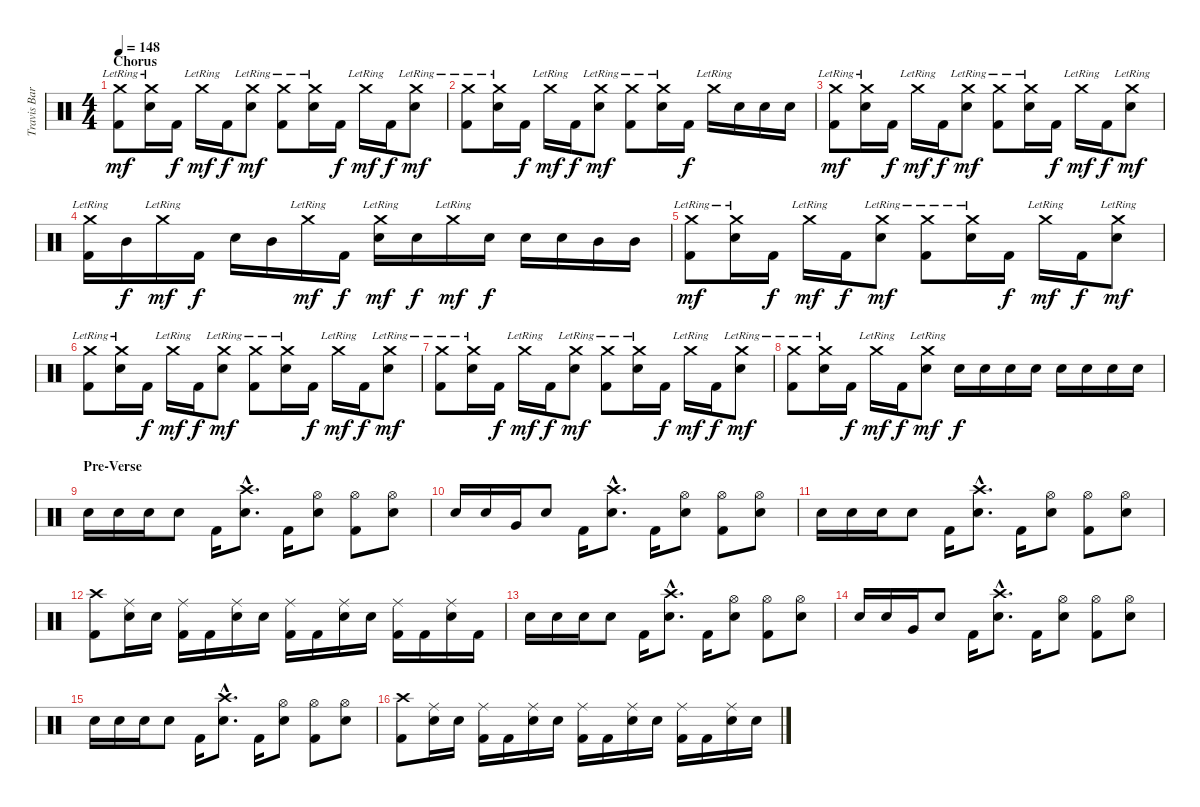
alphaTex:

\track ("Travis Barker - Drums" "Travis Bar") {instrument percussion}
\staff {score}
\articulation defaults
\ts (4 4)
\section ("" "Chorus")
\tempo 148
\clef neutral
\ks c
("Crash medium (hit)"{lr} "Kick (hit) 2").8{dy mf} ("Crash medium (hit)"{lr} "Electric Snare (hit)").16 "Kick (hit) 2".16{dy f} "Crash medium (hit)"{lr}.16{dy mf} "Kick (hit) 2".16{dy f} ("Crash medium (hit)"{lr} "Electric Snare (hit)").8{dy mf} ("Crash medium (hit)"{lr} "Kick (hit) 2").8 ("Crash medium (hit)"{lr} "Electric Snare (hit)").16 "Kick (hit) 2".16{dy f} "Crash medium (hit)"{lr}.16{dy mf} "Kick (hit) 2".16{dy f} ("Crash medium (hit)"{lr} "Electric Snare (hit)").8{dy mf} |
("Crash medium (hit)"{lr} "Kick (hit) 2").8 ("Crash medium (hit)"{lr} "Electric Snare (hit)").16 "Kick (hit) 2".16{dy f} "Crash medium (hit)"{lr}.16{dy mf} "Kick (hit) 2".16{dy f} ("Crash medium (hit)"{lr} "Electric Snare (hit)").8{dy mf} ("Crash medium (hit)"{lr} "Kick (hit) 2").8 ("Crash medium (hit)"{lr} "Electric Snare (hit)").16 "Kick (hit) 2".16{dy f} "Crash medium (hit)"{lr}.16 "Electric Snare (hit)".16 "Electric Snare (hit)".16 "Electric Snare (hit)".16 |
("Crash medium (hit)"{lr} "Kick (hit) 2").8{dy mf} ("Crash medium (hit)"{lr} "Electric Snare (hit)").16 "Kick (hit) 2".16{dy f} "Crash medium (hit)"{lr}.16{dy mf} "Kick (hit) 2".16{dy f} ("Crash medium (hit)"{lr} "Electric Snare (hit)").8{dy mf} ("Crash medium (hit)"{lr} "Kick (hit) 2").8 ("Crash medium (hit)"{lr} "Electric Snare (hit)").16 "Kick (hit) 2".16{dy f} "Crash medium (hit)"{lr}.16{dy mf} "Kick (hit) 2".16{dy f} ("Crash medium (hit)"{lr} "Electric Snare (hit)").8{dy mf} |
("Crash medium (hit)"{lr} "Kick (hit) 2").16 "Mid Tom (hit)".16{dy f} "Crash medium (hit)"{lr}.16{dy mf} "Kick (hit) 2".16{dy f} "Electric Snare (hit)".16 "Mid Tom (hit)".16 "Crash medium (hit)"{lr}.16{dy mf} "Kick (hit) 2".16{dy f} ("Crash medium (hit)"{lr} "Electric Snare (hit)").16{dy mf} "Electric Snare (hit)".16{dy f} "Crash medium (hit)"{lr}.16{dy mf} "Electric Snare (hit)".16{dy f} "Electric Snare (hit)".16 "Electric Snare (hit)".16 "Mid Tom (hit)".16 "Mid Tom (hit)".16 |
("Crash medium (hit)"{lr} "Kick (hit) 2").8{dy mf} ("Crash medium (hit)"{lr} "Electric Snare (hit)").16 "Kick (hit) 2".16{dy f} "Crash medium (hit)"{lr}.16{dy mf} "Kick (hit) 2".16{dy f} ("Crash medium (hit)"{lr} "Electric Snare (hit)").8{dy mf} ("Crash medium (hit)"{lr} "Kick (hit) 2").8 ("Crash medium (hit)"{lr} "Electric Snare (hit)").16 "Kick (hit) 2".16{dy f} "Crash medium (hit)"{lr}.16{dy mf} "Kick (hit) 2".16{dy f} ("Crash medium (hit)"{lr} "Electric Snare (hit)").8{dy mf} |
("Crash medium (hit)"{lr} "Kick (hit) 2").8 ("Crash medium (hit)"{lr} "Electric Snare (hit)").16 "Kick (hit) 2".16{dy f} "Crash medium (hit)"{lr}.16{dy mf} "Kick (hit) 2".16{dy f} ("Crash medium (hit)"{lr} "Electric Snare (hit)").8{dy mf} ("Crash medium (hit)"{lr} "Kick (hit) 2").8 ("Crash medium (hit)"{lr} "Electric Snare (hit)").16 "Kick (hit) 2".16{dy f} "Crash medium (hit)"{lr}.16{dy mf} "Kick (hit) 2".16{dy f} ("Crash medium (hit)"{lr} "Electric Snare (hit)").8{dy mf} |
("Crash medium (hit)"{lr} "Kick (hit) 2").8 ("Crash medium (hit)"{lr} "Electric Snare (hit)").16 "Kick (hit) 2".16{dy f} "Crash medium (hit)"{lr}.16{dy mf} "Kick (hit) 2".16{dy f} ("Crash medium (hit)"{lr} "Electric Snare (hit)").8{dy mf} ("Crash medium (hit)"{lr} "Kick (hit) 2").8 ("Crash medium (hit)"{lr} "Electric Snare (hit)").16 "Kick (hit) 2".16{dy f} "Crash medium (hit)"{lr}.16{dy mf} "Kick (hit) 2".16{dy f} ("Crash medium (hit)"{lr} "Electric Snare (hit)").8{dy mf} |
("Crash medium (hit)"{lr} "Kick (hit) 2").8 ("Crash medium (hit)"{lr} "Electric Snare (hit)").16 "Kick (hit) 2".16{dy f} "Crash medium (hit)"{lr}.16{dy mf} "Kick (hit) 2".16{dy f} ("Crash medium (hit)"{lr} "Electric Snare (hit)").8{dy mf} "Electric Snare (hit)".16{dy f} "Electric Snare (hit)".16 "Electric Snare (hit)".16 "Electric Snare (hit)".16 "Electric Snare (hit)".16 "Electric Snare (hit)".16 "Electric Snare (hit)".16 "Electric Snare (hit)".16 |
\section ("" "Pre-Verse")
"Electric Snare (hit)".16 "Electric Snare (hit)".16 "Electric Snare (hit)".16 "Electric Snare (hit)".8 "Kick (hit) 2".16 ("Crash high (hit)"{hac} "Electric Snare (hit)"{hac}).8{d} "Kick (hit) 2".16 ("Hi-Hat (open)" "Electric Snare (hit)").8 ("Hi-Hat (open)" "Kick (hit) 2").8 ("Hi-Hat (open)" "Electric Snare (hit)").8 |
"Electric Snare (hit)".16 "Electric Snare (hit)".16 "Very Low Tom (hit)".16 "Electric Snare (hit)".8 "Kick (hit) 2".16 ("Crash high (hit)"{hac} "Electric Snare (hit)"{hac}).8{d} "Kick (hit) 2".16 ("Hi-Hat (open)" "Electric Snare (hit)").8 ("Hi-Hat (open)" "Kick (hit) 2").8 ("Hi-Hat (open)" "Electric Snare (hit)").8 |
"Electric Snare (hit)".16 "Electric Snare (hit)".16 "Electric Snare (hit)".16 "Electric Snare (hit)".8 "Kick (hit) 2".16 ("Crash high (hit)"{hac} "Electric Snare (hit)"{hac}).8{d} "Kick (hit) 2".16 ("Hi-Hat (open)" "Electric Snare (hit)").8 ("Hi-Hat (open)" "Kick (hit) 2").8 ("Hi-Hat (open)" "Electric Snare (hit)").8 |
("Crash high (hit)" "Kick (hit) 2").8 ("Ride (middle)" "Electric Snare (hit)").16 "Electric Snare (hit)".16 ("Ride (middle)" "Kick (hit) 2").16 "Kick (hit) 2".16 ("Ride (middle)" "Electric Snare (hit)").16 "Electric Snare (hit)".16 ("Ride (middle)" "Kick (hit) 2").16 "Kick (hit) 2".16 ("Ride (middle)" "Electric Snare (hit)").16 "Electric Snare (hit)".16 ("Ride (middle)" "Kick (hit) 2").16 "Kick (hit) 2".16 ("Ride (middle)" "Electric Snare (hit)").16 "Kick (hit) 2".16 |
"Electric Snare (hit)".16 "Electric Snare (hit)".16 "Electric Snare (hit)".16 "Electric Snare (hit)".8 "Kick (hit) 2".16 ("Crash high (hit)"{hac} "Electric Snare (hit)"{hac}).8{d} "Kick (hit) 2".16 ("Hi-Hat (open)" "Electric Snare (hit)").8 ("Hi-Hat (open)" "Kick (hit) 2").8 ("Hi-Hat (open)" "Electric Snare (hit)").8 |
"Electric Snare (hit)".16 "Electric Snare (hit)".16 "Very Low Tom (hit)".16 "Electric Snare (hit)".8 "Kick (hit) 2".16 ("Crash high (hit)"{hac} "Electric Snare (hit)"{hac}).8{d} "Kick (hit) 2".16 ("Hi-Hat (open)" "Electric Snare (hit)").8 ("Hi-Hat (open)" "Kick (hit) 2").8 ("Hi-Hat (open)" "Electric Snare (hit)").8 |
"Electric Snare (hit)".16 "Electric Snare (hit)".16 "Electric Snare (hit)".16 "Electric Snare (hit)".8 "Kick (hit) 2".16 ("Crash high (hit)"{hac} "Electric Snare (hit)"{hac}).8{d} "Kick (hit) 2".16 ("Hi-Hat (open)" "Electric Snare (hit)").8 ("Hi-Hat (open)" "Kick (hit) 2").8 ("Hi-Hat (open)" "Electric Snare (hit)").8 |
("Crash high (hit)" "Kick (hit) 2").8 ("Ride (middle)" "Electric Snare (hit)").16 "Electric Snare (hit)".16 ("Ride (middle)" "Kick (hit) 2").16 "Kick (hit) 2".16 ("Ride (middle)" "Electric Snare (hit)").16 "Electric Snare (hit)".16 ("Ride (middle)" "Kick (hit) 2").16 "Kick (hit) 2".16 ("Ride (middle)" "Electric Snare (hit)").16 "Electric Snare (hit)".16 ("Ride (middle)" "Kick (hit) 2").16 "Kick (hit) 2".16 ("Ride (middle)" "Electric Snare (hit)").16 "Electric Snare (hit)".16
